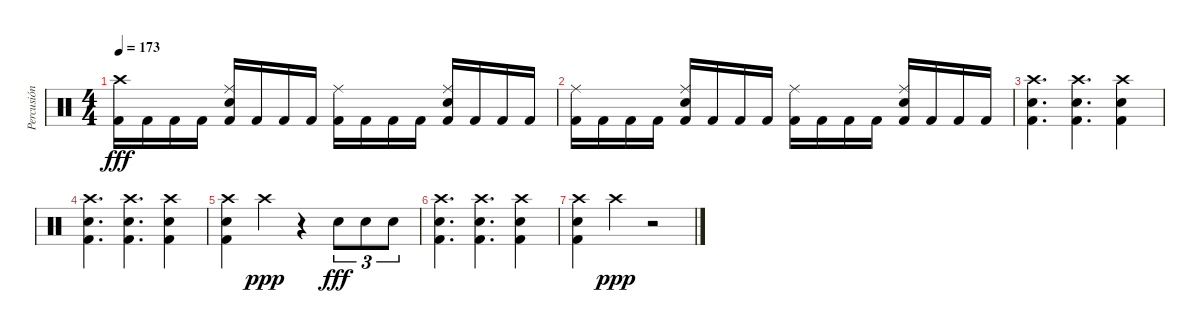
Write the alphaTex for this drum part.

\track ("Percusión" "Percusión") {instrument percussion}
\staff {score}
\articulation defaults
\ts (4 4)
\tempo 173
\clef neutral
\ks c
("Crash high (hit)" "Kick (hit) 2").16{dy fff} "Kick (hit) 2".16 "Kick (hit) 2".16 "Kick (hit) 2".16 ("Ride (middle)" "Electric Snare (hit)" "Kick (hit) 2").16 "Kick (hit) 2".16 "Kick (hit) 2".16 "Kick (hit) 2".16 ("Ride (middle)" "Kick (hit) 2").16 "Kick (hit) 2".16 "Kick (hit) 2".16 "Kick (hit) 2".16 ("Ride (middle)" "Electric Snare (hit)" "Kick (hit) 2").16 "Kick (hit) 2".16 "Kick (hit) 2".16 "Kick (hit) 2".16 |
("Ride (middle)" "Kick (hit) 2").16 "Kick (hit) 2".16 "Kick (hit) 2".16 "Kick (hit) 2".16 ("Ride (middle)" "Electric Snare (hit)" "Kick (hit) 2").16 "Kick (hit) 2".16 "Kick (hit) 2".16 "Kick (hit) 2".16 ("Ride (middle)" "Kick (hit) 2").16 "Kick (hit) 2".16 "Kick (hit) 2".16 "Kick (hit) 2".16 ("Ride (middle)" "Electric Snare (hit)" "Kick (hit) 2").16 "Kick (hit) 2".16 "Kick (hit) 2".16 "Kick (hit) 2".16 |
("Crash high (hit)" "Snare (hit) 2" "Kick (hit) 2").4{d} ("Crash high (hit)" "Snare (hit) 2" "Kick (hit) 2").4{d} ("Crash high (hit)" "Snare (hit) 2" "Kick (hit) 2").4 |
("Crash high (hit)" "Snare (hit) 2" "Kick (hit) 2").4{d} ("Crash high (hit)" "Snare (hit) 2" "Kick (hit) 2").4{d} ("Crash high (hit)" "Snare (hit) 2" "Kick (hit) 2").4 |
("Crash high (hit)" "Snare (hit) 2" "Kick (hit) 2").4 "Crash high (hit)".4{dy ppp} r.4 "Snare (hit) 2".8{tu (3 2) dy fff} "Snare (hit) 2".8{tu (3 2)} "Snare (hit) 2".8{tu (3 2)} |
("Crash high (hit)" "Snare (hit) 2" "Kick (hit) 2").4{d} ("Crash high (hit)" "Snare (hit) 2" "Kick (hit) 2").4{d} ("Crash high (hit)" "Snare (hit) 2" "Kick (hit) 2").4 |
("Crash high (hit)" "Snare (hit) 2" "Kick (hit) 2").4 "Crash high (hit)".4{dy ppp} r.2
